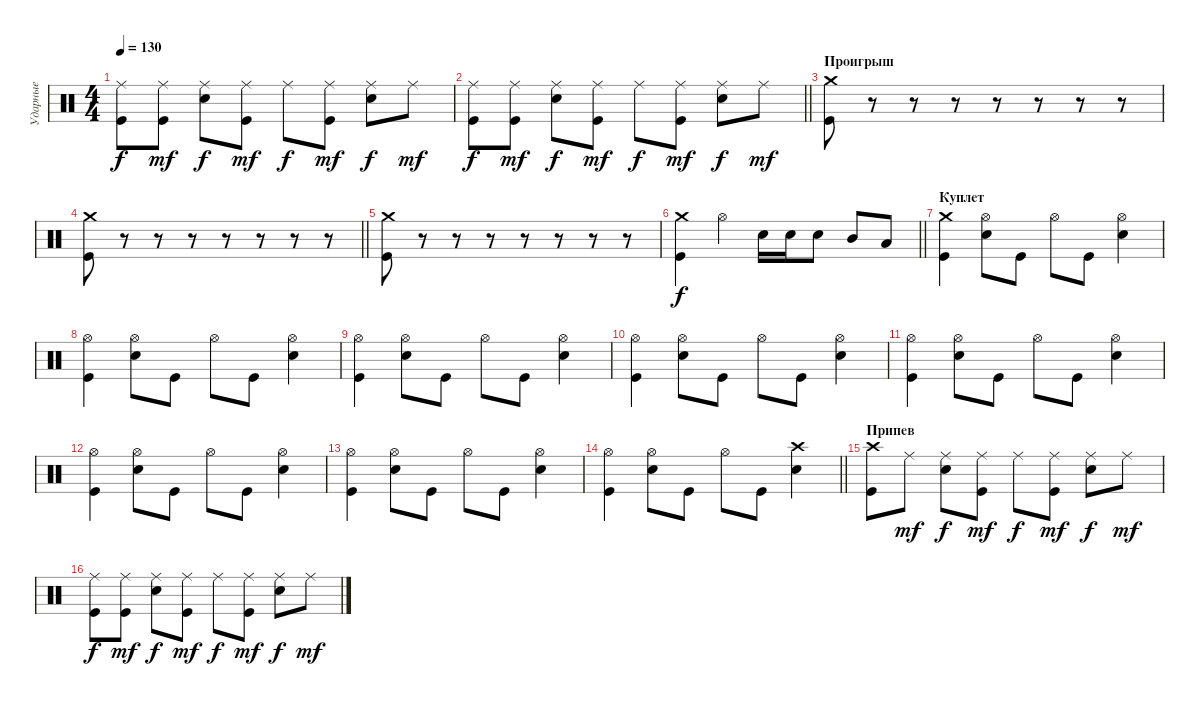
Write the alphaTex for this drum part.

\track ("Ударные" "Ударные") {instrument percussion}
\staff {score}
\articulation defaults
\ts (4 4)
\tempo 130
\clef neutral
\ks c
("Ride (middle)" "Kick (hit)").8{dy f} ("Ride (middle)" "Kick (hit)").8{dy mf} ("Ride (middle)" "Electric Snare (hit)").8{dy f} ("Ride (middle)" "Kick (hit)").8{dy mf} "Ride (middle)".8{dy f} ("Ride (middle)" "Kick (hit)").8{dy mf} ("Ride (middle)" "Electric Snare (hit)").8{dy f} "Ride (middle)".8{dy mf} |
\barLineRight lightlight
("Ride (middle)" "Kick (hit)").8{dy f} ("Ride (middle)" "Kick (hit)").8{dy mf} ("Ride (middle)" "Electric Snare (hit)").8{dy f} ("Ride (middle)" "Kick (hit)").8{dy mf} "Ride (middle)".8{dy f} ("Ride (middle)" "Kick (hit)").8{dy mf} ("Ride (middle)" "Electric Snare (hit)").8{dy f} "Ride (middle)".8{dy mf} |
\section ("" "Проигрыш")
("Crash medium (hit)" "Kick (hit)").8 r.8 r.8 r.8 r.8 r.8 r.8 r.8 |
\barLineRight lightlight
("Crash medium (hit)" "Kick (hit)").8 r.8 r.8 r.8 r.8 r.8 r.8 r.8 |
("Crash medium (hit)" "Kick (hit)").8 r.8 r.8 r.8 r.8 r.8 r.8 r.8 |
\barLineRight lightlight
("Crash medium (hit)" "Kick (hit)").4{dy f} "Hi-Hat (open)".4 "Electric Snare (hit)".16 "Electric Snare (hit)".16 "Electric Snare (hit)".8 "Mid Tom (hit)".8 "Low Tom (hit)".8 |
\section ("" "Куплет")
("Crash medium (hit)" "Kick (hit)").4 ("Hi-Hat (open)" "Electric Snare (hit)").8 "Kick (hit)".8 "Hi-Hat (open)".8 "Kick (hit)".8 ("Hi-Hat (open)" "Electric Snare (hit)").4 |
("Hi-Hat (open)" "Kick (hit)").4 ("Hi-Hat (open)" "Electric Snare (hit)").8 "Kick (hit)".8 "Hi-Hat (open)".8 "Kick (hit)".8 ("Hi-Hat (open)" "Electric Snare (hit)").4 |
("Hi-Hat (open)" "Kick (hit)").4 ("Hi-Hat (open)" "Electric Snare (hit)").8 "Kick (hit)".8 "Hi-Hat (open)".8 "Kick (hit)".8 ("Hi-Hat (open)" "Electric Snare (hit)").4 |
("Hi-Hat (open)" "Kick (hit)").4 ("Hi-Hat (open)" "Electric Snare (hit)").8 "Kick (hit)".8 "Hi-Hat (open)".8 "Kick (hit)".8 ("Hi-Hat (open)" "Electric Snare (hit)").4 |
("Hi-Hat (open)" "Kick (hit)").4 ("Hi-Hat (open)" "Electric Snare (hit)").8 "Kick (hit)".8 "Hi-Hat (open)".8 "Kick (hit)".8 ("Hi-Hat (open)" "Electric Snare (hit)").4 |
("Hi-Hat (open)" "Kick (hit)").4 ("Hi-Hat (open)" "Electric Snare (hit)").8 "Kick (hit)".8 "Hi-Hat (open)".8 "Kick (hit)".8 ("Hi-Hat (open)" "Electric Snare (hit)").4 |
("Hi-Hat (open)" "Kick (hit)").4 ("Hi-Hat (open)" "Electric Snare (hit)").8 "Kick (hit)".8 "Hi-Hat (open)".8 "Kick (hit)".8 ("Hi-Hat (open)" "Electric Snare (hit)").4 |
\barLineRight lightlight
("Hi-Hat (open)" "Kick (hit)").4 ("Hi-Hat (open)" "Electric Snare (hit)").8 "Kick (hit)".8 "Hi-Hat (open)".8 "Kick (hit)".8 ("Crash high (hit)" "Electric Snare (hit)").4 |
\section ("" "Припев")
("Crash high (hit)" "Kick (hit)").8 "Ride (middle)".8{dy mf} ("Ride (middle)" "Electric Snare (hit)").8{dy f} ("Ride (middle)" "Kick (hit)").8{dy mf} "Ride (middle)".8{dy f} ("Ride (middle)" "Kick (hit)").8{dy mf} ("Ride (middle)" "Electric Snare (hit)").8{dy f} "Ride (middle)".8{dy mf} |
("Ride (middle)" "Kick (hit)").8{dy f} ("Ride (middle)" "Kick (hit)").8{dy mf} ("Ride (middle)" "Electric Snare (hit)").8{dy f} ("Ride (middle)" "Kick (hit)").8{dy mf} "Ride (middle)".8{dy f} ("Ride (middle)" "Kick (hit)").8{dy mf} ("Ride (middle)" "Electric Snare (hit)").8{dy f} "Ride (middle)".8{dy mf}
